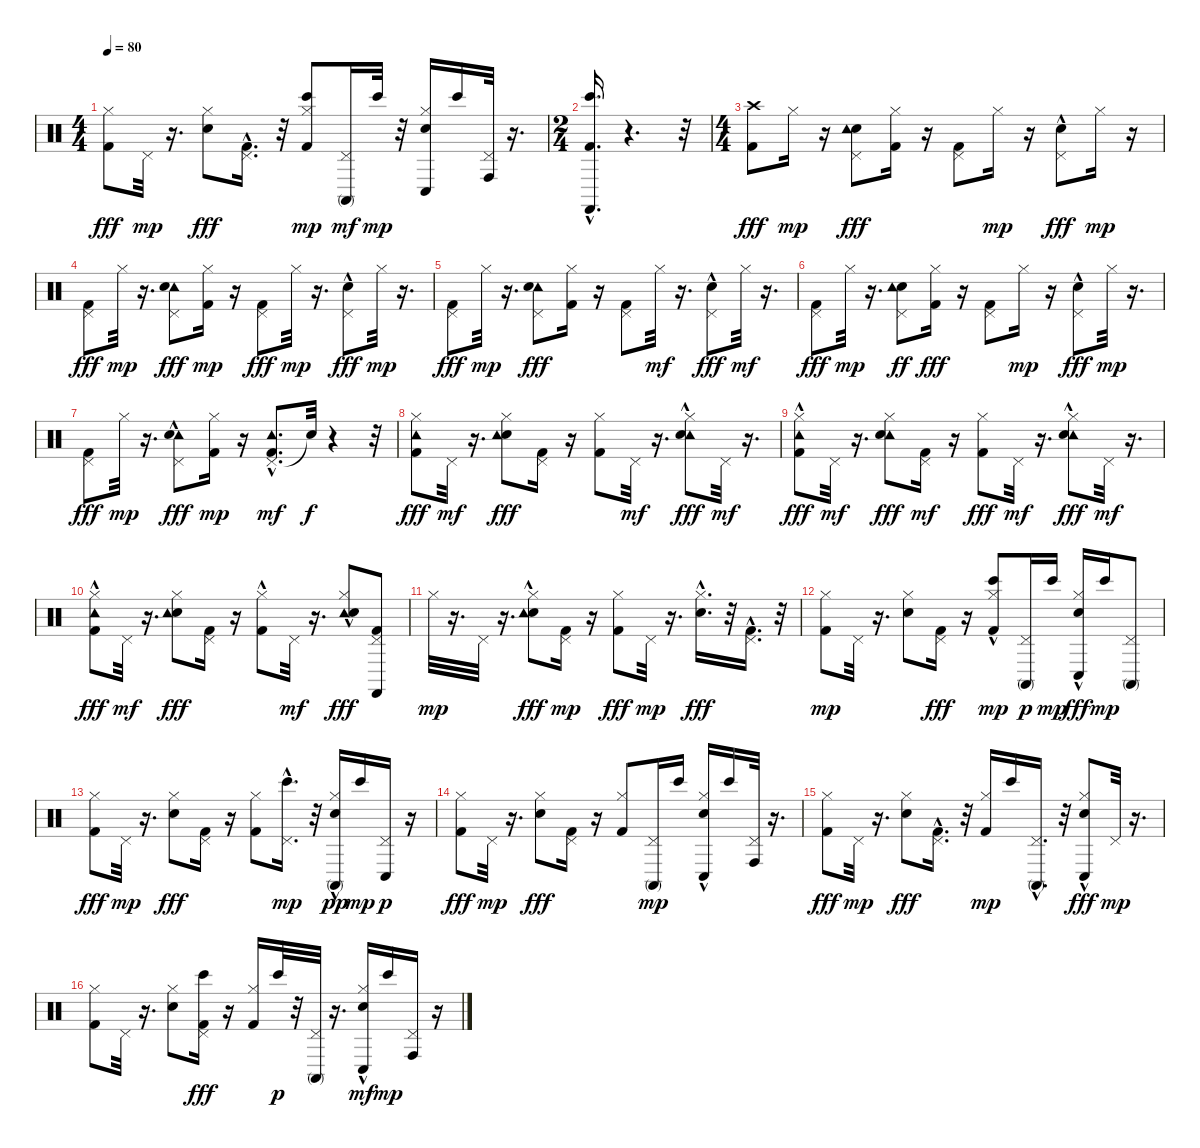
\track "" {instrument percussion}
\staff {score}
\articulation defaults
\ts (4 4)
\tempo 80
\clef neutral
\ks c
("Hi-Hat (closed)" "Kick (hit) 2").8{dy fff} "Pedal Hi-Hat (hit)".32{dy mp} r.16{d} ("Hi-Hat (closed)" "Snare (hit) 2").8{dy fff} ("Pedal Hi-Hat (hit)" "Kick (hit) 2"{hac}).16{d} r.32 ("Kick (hit) 2" "Hi-Hat (closed)" "Bongo High (hit)").8{dy mp} ("Pedal Hi-Hat (hit)" "Conga high (mute)").16{dy mf} "Bongo High (hit)".32{dy mp} r.32 ("Hi-Hat (closed)" "Snare (hit) 2" "Conga low (hit)").16 "Bongo High (hit)".16 ("Pedal Hi-Hat (hit)" "Conga high (hit)").32 r.16{d} |
\ts (2 4)
("Kick (hit) 2"{hac} "Castanets (hit)" "Bongo High (hit)").16{d} r.4{d} r.32 |
\ts (4 4)
("Crash high (hit)" "Kick (hit) 2").8{dy fff} "Hi-Hat (closed)".16{dy mp} r.16 ("Pedal Hi-Hat (hit)" "Snare (hit) 2" "Tambourine (hit)").8{dy fff} ("Hi-Hat (closed)" "Kick (hit) 2").16 r.16 ("Pedal Hi-Hat (hit)" "Kick (hit) 2").8 "Hi-Hat (closed)".16{dy mp} r.16 ("Pedal Hi-Hat (hit)" "Snare (hit) 2"{hac}).8{dy fff} "Hi-Hat (closed)".16{dy mp} r.16 |
("Pedal Hi-Hat (hit)" "Kick (hit) 2").8{dy fff} "Hi-Hat (closed)".32{dy mp} r.16{d} ("Tambourine (hit)" "Pedal Hi-Hat (hit)" "Snare (hit) 2").8{dy fff} ("Kick (hit) 2" "Hi-Hat (closed)").16{dy mp} r.16 ("Pedal Hi-Hat (hit)" "Kick (hit) 2").8{dy fff} "Hi-Hat (closed)".32{dy mp} r.16{d} ("Pedal Hi-Hat (hit)" "Snare (hit) 2"{hac}).8{dy fff} "Hi-Hat (closed)".32{dy mp} r.16{d} |
("Pedal Hi-Hat (hit)" "Kick (hit) 2").8{dy fff} "Hi-Hat (closed)".32{dy mp} r.16{d} ("Tambourine (hit)" "Pedal Hi-Hat (hit)" "Snare (hit) 2").8{dy fff} ("Hi-Hat (closed)" "Kick (hit) 2").16 r.16 ("Pedal Hi-Hat (hit)" "Kick (hit) 2").8 "Hi-Hat (closed)".32{dy mf} r.16{d} ("Pedal Hi-Hat (hit)" "Snare (hit) 2"{hac}).8{dy fff} "Hi-Hat (closed)".32{dy mf} r.16{d} |
("Pedal Hi-Hat (hit)" "Kick (hit) 2").8{dy fff} "Hi-Hat (closed)".32{dy mp} r.16{d} ("Pedal Hi-Hat (hit)" "Snare (hit) 2" "Tambourine (hit)").8{dy ff} ("Hi-Hat (closed)" "Kick (hit) 2").16{dy fff} r.16 ("Pedal Hi-Hat (hit)" "Kick (hit) 2").8 "Hi-Hat (closed)".16{dy mp} r.16 ("Pedal Hi-Hat (hit)" "Snare (hit) 2"{hac}).8{dy fff} "Hi-Hat (closed)".32{dy mp} r.16{d} |
("Pedal Hi-Hat (hit)" "Kick (hit) 2").8{dy fff} "Hi-Hat (closed)".32{dy mp} r.16{d} ("Tambourine (hit)"{hac} "Pedal Hi-Hat (hit)" "Snare (hit) 2").8{dy fff} ("Kick (hit) 2" "Hi-Hat (closed)").16{dy mp} r.16 ("Pedal Hi-Hat (hit)" "Kick (hit) 2"{hac} "Tambourine (hit)"{hac}).8{d dy mf} "Snare (hit)"{t}.32{dy f} r.4 r.32 |
("Kick (hit) 2" "Hi-Hat (closed)" "Tambourine (hit)").8{dy fff} "Pedal Hi-Hat (hit)".32{dy mf} r.16{d} ("Snare (hit) 2" "Hi-Hat (closed)" "Tambourine (hit)").8{dy fff} ("Pedal Hi-Hat (hit)" "Kick (hit) 2").16 r.16 ("Hi-Hat (closed)" "Kick (hit) 2").8 "Pedal Hi-Hat (hit)".32{dy mf} r.16{d} ("Tambourine (hit)"{hac} "Hi-Hat (closed)" "Snare (hit) 2"{hac}).8{dy fff} "Pedal Hi-Hat (hit)".32{dy mf} r.16{d} |
("Hi-Hat (closed)" "Kick (hit) 2" "Tambourine (hit)"{hac}).8{dy fff} "Pedal Hi-Hat (hit)".32{dy mf} r.16{d} ("Tambourine (hit)" "Hi-Hat (closed)" "Snare (hit) 2").8{dy fff} ("Kick (hit) 2" "Pedal Hi-Hat (hit)").16{dy mf} r.16 ("Hi-Hat (closed)" "Kick (hit) 2").8{dy fff} "Pedal Hi-Hat (hit)".32{dy mf} r.16{d} ("Tambourine (hit)"{hac} "Hi-Hat (closed)" "Snare (hit) 2").8{dy fff} "Pedal Hi-Hat (hit)".32{dy mf} r.16{d} |
("Hi-Hat (closed)" "Kick (hit) 2" "Tambourine (hit)"{hac}).8{dy fff} "Pedal Hi-Hat (hit)".32{dy mf} r.16{d} ("Hi-Hat (closed)" "Snare (hit) 2" "Tambourine (hit)").8{dy fff} ("Pedal Hi-Hat (hit)" "Kick (hit) 2").16 r.16 ("Hi-Hat (closed)" "Kick (hit) 2"{hac}).8 "Pedal Hi-Hat (hit)".32{dy mf} r.16{d} ("Tambourine (hit)"{hac} "Hi-Hat (closed)" "Snare (hit) 2"{hac}).8{dy fff} ("Pedal Hi-Hat (hit)" "Kick (hit) 2" "Castanets (hit)").8 |
"Hi-Hat (closed)".32{dy mp} r.16{d} "Pedal Hi-Hat (hit)".32 r.16{d} ("Hi-Hat (closed)" "Snare (hit) 2" "Tambourine (hit)"{hac}).8{dy fff} ("Kick (hit) 2" "Pedal Hi-Hat (hit)").16{dy mp} r.16 ("Hi-Hat (closed)" "Kick (hit) 2").8{dy fff} "Pedal Hi-Hat (hit)".32{dy mp} r.16{d} ("Hi-Hat (closed)" "Snare (hit) 2"{hac}).16{d dy fff} r.32 ("Pedal Hi-Hat (hit)" "Kick (hit) 2"{hac}).16{d} r.32 |
("Kick (hit) 2" "Hi-Hat (closed)").8{dy mp} "Pedal Hi-Hat (hit)".32 r.16{d} ("Snare (hit) 2" "Hi-Hat (closed)").8 ("Pedal Hi-Hat (hit)" "Kick (hit) 2").16{dy fff} r.16 ("Hi-Hat (closed)" "Kick (hit) 2" "Bongo High (hit)"{hac}).8{dy mp} ("Pedal Hi-Hat (hit)" "Conga high (mute)").16{dy p} "Bongo High (hit)".16{dy mp} ("Conga low (hit)" "Hi-Hat (closed)" "Snare (hit) 2"{hac}).16{dy fff} "Bongo High (hit)".16{dy mp} ("Conga high (mute)" "Pedal Hi-Hat (hit)").8 |
("Hi-Hat (closed)" "Kick (hit) 2").8{dy fff} "Pedal Hi-Hat (hit)".32{dy mp} r.16{d} ("Hi-Hat (closed)" "Snare (hit) 2").8{dy fff} ("Pedal Hi-Hat (hit)" "Kick (hit) 2").16 r.16 ("Hi-Hat (closed)" "Kick (hit) 2").8 ("Bongo High (hit)"{hac} "Pedal Hi-Hat (hit)").16{d dy mp} r.32 ("Hi-Hat (closed)" "Snare (hit) 2"{hac} "Conga high (mute)").16{dy pp} "Bongo High (hit)".16{dy mp} ("Pedal Hi-Hat (hit)" "Conga low (hit)").16{dy p} r.16 |
("Hi-Hat (closed)" "Kick (hit) 2").8{dy fff} "Pedal Hi-Hat (hit)".32{dy mp} r.16{d} ("Hi-Hat (closed)" "Snare (hit) 2").8{dy fff} ("Pedal Hi-Hat (hit)" "Kick (hit) 2").16 r.16 ("Hi-Hat (closed)" "Kick (hit) 2").8 ("Conga high (mute)" "Pedal Hi-Hat (hit)").16{dy mp} "Bongo High (hit)".16 ("Hi-Hat (closed)" "Snare (hit) 2"{hac} "Conga low (hit)").16 "Bongo High (hit)".16 ("Pedal Hi-Hat (hit)" "Conga high (hit)").32 r.16{d} |
("Hi-Hat (closed)" "Kick (hit) 2").8{dy fff} "Pedal Hi-Hat (hit)".32{dy mp} r.16{d} ("Hi-Hat (closed)" "Snare (hit) 2").8{dy fff} ("Pedal Hi-Hat (hit)" "Kick (hit) 2"{hac}).16{d} r.32 ("Kick (hit) 2" "Hi-Hat (closed)").16{dy mp} "Bongo High (hit)".16 ("Pedal Hi-Hat (hit)" "Conga high (mute)"{hac}).16{d} r.32 ("Conga low (hit)"{hac} "Hi-Hat (closed)" "Snare (hit) 2").8{dy fff} "Pedal Hi-Hat (hit)".32{dy mp} r.16{d} |
("Kick (hit) 2" "Hi-Hat (closed)").8 "Pedal Hi-Hat (hit)".32 r.16{d} ("Snare (hit) 2" "Hi-Hat (closed)").8 ("Bongo High (hit)" "Pedal Hi-Hat (hit)" "Kick (hit) 2").16{dy fff} r.16 ("Hi-Hat (closed)" "Kick (hit) 2").16 "Bongo High (hit)".32{dy p} r.32 ("Pedal Hi-Hat (hit)" "Conga high (mute)").32 r.16{d} ("Hi-Hat (closed)" "Snare (hit) 2"{hac} "Conga low (hit)").16{dy mf} "Bongo High (hit)".16{dy mp} ("Pedal Hi-Hat (hit)" "Conga high (hit)").16 r.16
